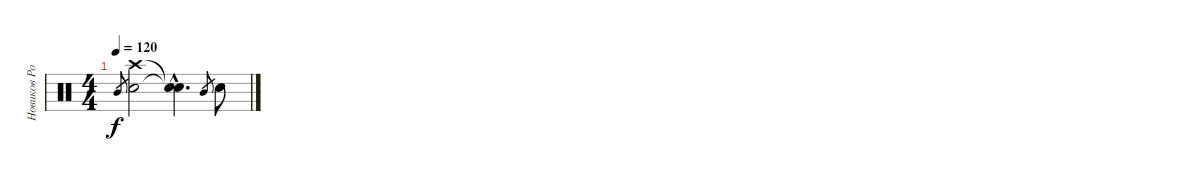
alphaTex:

\track ("Новиков Роман  ( Ударные )" "Новиков Ро") {instrument percussion}
\staff {score}
\articulation defaults
\ts (4 4)
\tempo 120
\clef neutral
\ks c "Mid Tom (hit)"{h}.8{gr dy f}
("Snare (hit) 2" "Crash high (hit)").2 ("Snare (hit)"{hac t} "Snare (hit)"{hac t}).4{d} "Mid Tom (hit)"{h}.8{gr} "Snare (hit) 2".8
